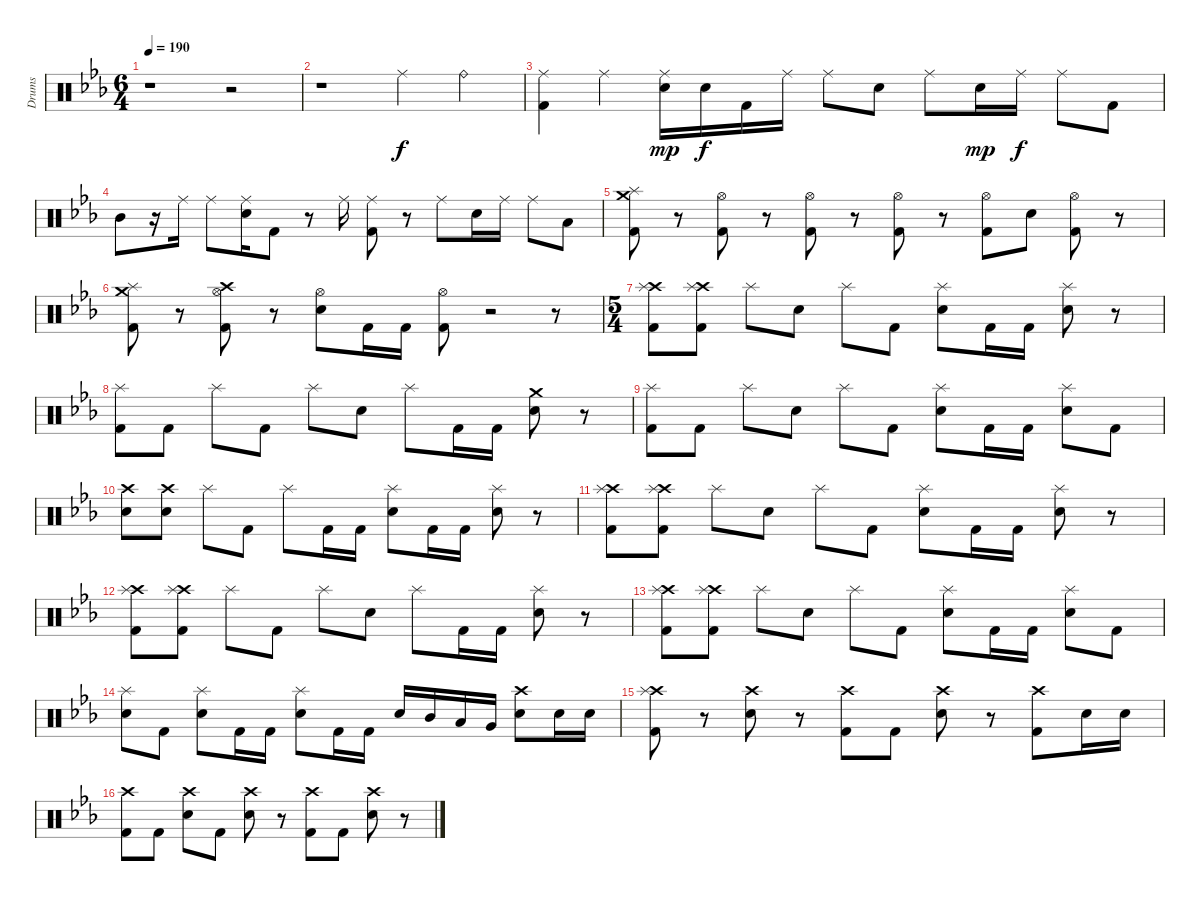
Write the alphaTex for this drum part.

\track ("Drums" "Drums") {instrument percussion}
\staff {score}
\articulation defaults
\ts (6 4)
\tempo 190
\clef neutral
\ks eb
r.1{dy f} r.2 |
r.1 "Ride (middle)".4 "Ride (bell)".4 |
("Kick (hit) 2" "Ride (middle)").4 "Ride (middle)".4 ("Electric Snare (hit)" "Ride (middle)").16{dy mp} "Electric Snare (hit)".16{dy f} "Kick (hit) 2".16 "Ride (middle)".16 "Ride (middle)".8 "Electric Snare (hit)".8 "Ride (middle)".8 "Electric Snare (hit)".16{dy mp} "Ride (middle)".16{dy f} "Ride (middle)".8 "Kick (hit) 2".8 |
"Mid Tom (hit)".8 r.16 "Ride (middle)".16 "Ride (middle)".8 ("Electric Snare (hit)" "Ride (middle)").16 "Kick (hit) 2".8 r.8 "Ride (middle)".16 ("Kick (hit) 2" "Ride (middle)").8 r.8 "Ride (middle)".8 "Electric Snare (hit)".16 "Ride (middle)".16 "Ride (middle)".8 "Low Tom (hit)".8 |
("Kick (hit) 2" "Splash (hit)" "Crash medium (hit)").8 r.8 ("Kick (hit) 2" "Hi-Hat (open)").8 r.8 ("Kick (hit) 2" "Hi-Hat (open)").8 r.8 ("Kick (hit) 2" "Hi-Hat (open)").8 r.8 ("Kick (hit) 2" "Hi-Hat (open)").8 "Electric Snare (hit)".8 ("Kick (hit) 2" "Hi-Hat (open)").8 r.8 |
("Kick (hit) 2" "Splash (hit)" "Crash medium (hit)").8 r.8 ("Kick (hit) 2" "Hi-Hat (open)" "Crash high (hit)").8 r.8 ("Electric Snare (hit)" "Hi-Hat (open)").8 "Kick (hit) 2".16 "Kick (hit) 2".16 ("Kick (hit) 2" "Hi-Hat (open)").8 r.2 r.8 |
\ts (5 4)
("Kick (hit) 2" "Crash high (hit)" "Splash (hit)").8 ("Kick (hit) 2" "Crash high (hit)" "Splash (hit)").8 "Splash (hit)".8 "Electric Snare (hit)".8 "Splash (hit)".8 "Kick (hit) 2".8 ("Electric Snare (hit)" "Splash (hit)").8 "Kick (hit) 2".16 "Kick (hit) 2".16 ("Electric Snare (hit)" "Splash (hit)").8 r.8 |
("Kick (hit) 2" "Splash (hit)").8 "Kick (hit) 2".8 "Splash (hit)".8 "Kick (hit) 2".8 "Splash (hit)".8 "Electric Snare (hit)".8 "Splash (hit)".8 "Kick (hit) 2".16 "Kick (hit) 2".16 ("Electric Snare (hit)" "Crash medium (hit)").8 r.8 |
("Kick (hit) 2" "Splash (hit)").8 "Kick (hit) 2".8 "Splash (hit)".8 "Electric Snare (hit)".8 "Splash (hit)".8 "Kick (hit) 2".8 ("Electric Snare (hit)" "Splash (hit)").8 "Kick (hit) 2".16 "Kick (hit) 2".16 ("Electric Snare (hit)" "Splash (hit)").8 "Kick (hit) 2".8 |
("Electric Snare (hit)" "Crash high (hit)").8 ("Electric Snare (hit)" "Crash high (hit)").8 "Splash (hit)".8 "Kick (hit) 2".8 "Splash (hit)".8 "Kick (hit) 2".16 "Kick (hit) 2".16 ("Electric Snare (hit)" "Splash (hit)").8 "Kick (hit) 2".16 "Kick (hit) 2".16 ("Electric Snare (hit)" "Splash (hit)").8 r.8 |
("Kick (hit) 2" "Crash high (hit)" "Splash (hit)").8 ("Kick (hit) 2" "Crash high (hit)" "Splash (hit)").8 "Splash (hit)".8 "Electric Snare (hit)".8 "Splash (hit)".8 "Kick (hit) 2".8 ("Electric Snare (hit)" "Splash (hit)").8 "Kick (hit) 2".16 "Kick (hit) 2".16 ("Electric Snare (hit)" "Splash (hit)").8 r.8 |
("Kick (hit) 2" "Crash high (hit)" "Splash (hit)").8 ("Kick (hit) 2" "Crash high (hit)" "Splash (hit)").8 "Splash (hit)".8 "Kick (hit) 2".8 "Splash (hit)".8 "Electric Snare (hit)".8 "Splash (hit)".8 "Kick (hit) 2".16 "Kick (hit) 2".16 ("Electric Snare (hit)" "Splash (hit)").8 r.8 |
("Kick (hit) 2" "Crash high (hit)" "Splash (hit)").8 ("Kick (hit) 2" "Crash high (hit)" "Splash (hit)").8 "Splash (hit)".8 "Electric Snare (hit)".8 "Splash (hit)".8 "Kick (hit) 2".8 ("Electric Snare (hit)" "Splash (hit)").8 "Kick (hit) 2".16 "Kick (hit) 2".16 ("Electric Snare (hit)" "Splash (hit)").8 "Kick (hit) 2".8 |
("Electric Snare (hit)" "Splash (hit)").8 "Kick (hit) 2".8 ("Electric Snare (hit)" "Splash (hit)").8 "Kick (hit) 2".16 "Kick (hit) 2".16 ("Electric Snare (hit)" "Splash (hit)").8 "Kick (hit) 2".16 "Kick (hit) 2".16 "Electric Snare (hit)".16 "Mid Tom (hit)".16 "Low Tom (hit)".16 "Very Low Tom (hit)".16 ("Electric Snare (hit)" "Crash high (hit)").8 "Electric Snare (hit)".16 "Electric Snare (hit)".16 |
("Kick (hit) 2" "Crash high (hit)" "Splash (hit)").8 r.8 ("Electric Snare (hit)" "Crash high (hit)").8 r.8 ("Kick (hit) 2" "Crash high (hit)").8 "Kick (hit) 2".8 ("Electric Snare (hit)" "Crash high (hit)").8 r.8 ("Kick (hit) 2" "Crash high (hit)").8 "Electric Snare (hit)".16 "Electric Snare (hit)".16 |
("Kick (hit) 2" "Crash high (hit)").8 "Kick (hit) 2".8 ("Electric Snare (hit)" "Crash high (hit)").8 "Kick (hit) 2".8 ("Electric Snare (hit)" "Crash high (hit)").8 r.8 ("Kick (hit) 2" "Crash high (hit)").8 "Kick (hit) 2".8 ("Electric Snare (hit)" "Crash high (hit)").8 r.8
